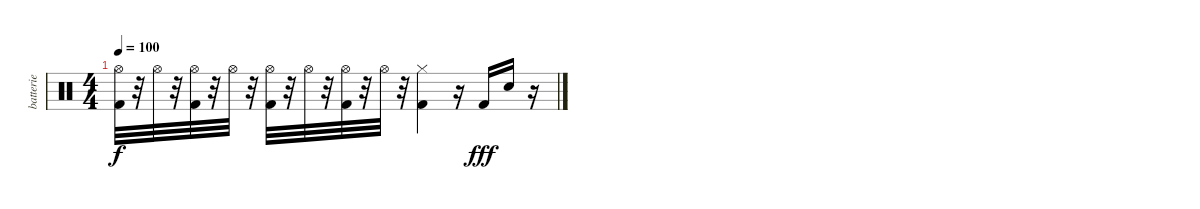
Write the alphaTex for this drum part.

\track ("batterie" "batterie") {instrument percussion}
\staff {score}
\articulation defaults
\ts (4 4)
\tempo 100
\clef neutral
\ks c
("Hi-Hat (open)" "Kick (hit) 2").32{dy f} r.32 "Hi-Hat (open)".32 r.32 ("Hi-Hat (open)" "Kick (hit) 2").32 r.32 "Hi-Hat (open)".32 r.32 ("Hi-Hat (open)" "Kick (hit) 2").32 r.32 "Hi-Hat (open)".32 r.32 ("Hi-Hat (open)" "Kick (hit) 2").32 r.32 "Hi-Hat (open)".32 r.32 ("Hi-Hat (closed)" "Kick (hit) 2").4 r.16 "Kick (hit) 2".16{dy fff} "Electric Snare (hit)".16 r.16
